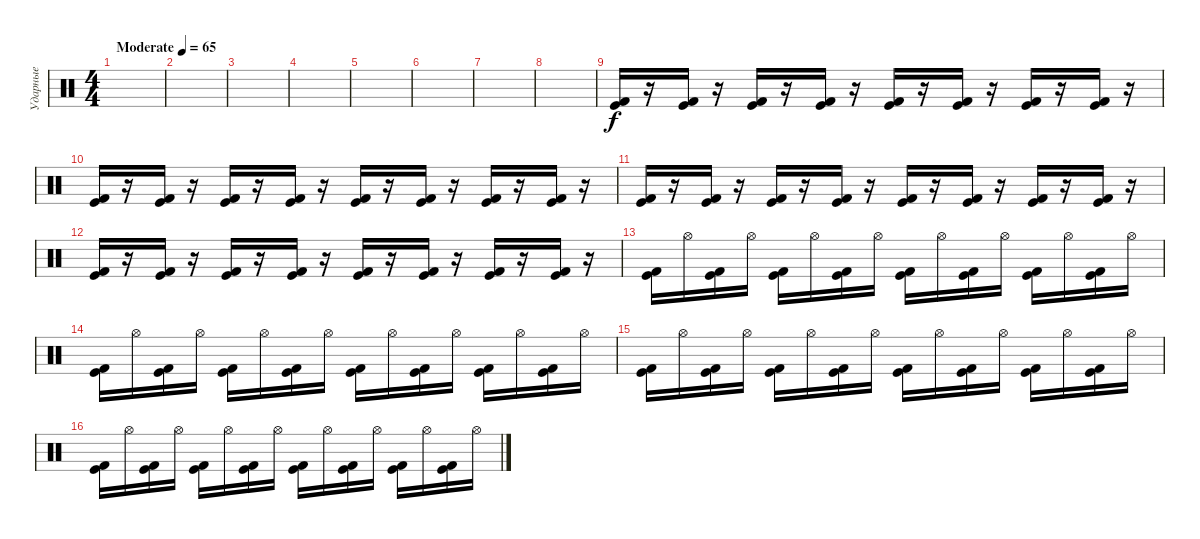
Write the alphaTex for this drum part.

\track ("Ударные" "Ударные") {instrument percussion}
\staff {score}
\articulation defaults
\ts (4 4)
\tempo (65 "Moderate")
\clef neutral
\ks c
|
|
|
|
|
|
|
|
("Kick (hit) 2" "Kick (hit)").16 r.16 ("Kick (hit) 2" "Kick (hit)").16 r.16 ("Kick (hit) 2" "Kick (hit)").16 r.16 ("Kick (hit) 2" "Kick (hit)").16 r.16 ("Kick (hit) 2" "Kick (hit)").16 r.16 ("Kick (hit) 2" "Kick (hit)").16 r.16 ("Kick (hit) 2" "Kick (hit)").16 r.16 ("Kick (hit) 2" "Kick (hit)").16 r.16 |
("Kick (hit) 2" "Kick (hit)").16 r.16 ("Kick (hit) 2" "Kick (hit)").16 r.16 ("Kick (hit) 2" "Kick (hit)").16 r.16 ("Kick (hit) 2" "Kick (hit)").16 r.16 ("Kick (hit) 2" "Kick (hit)").16 r.16 ("Kick (hit) 2" "Kick (hit)").16 r.16 ("Kick (hit) 2" "Kick (hit)").16 r.16 ("Kick (hit) 2" "Kick (hit)").16 r.16 |
("Kick (hit) 2" "Kick (hit)").16 r.16 ("Kick (hit) 2" "Kick (hit)").16 r.16 ("Kick (hit) 2" "Kick (hit)").16 r.16 ("Kick (hit) 2" "Kick (hit)").16 r.16 ("Kick (hit) 2" "Kick (hit)").16 r.16 ("Kick (hit) 2" "Kick (hit)").16 r.16 ("Kick (hit) 2" "Kick (hit)").16 r.16 ("Kick (hit) 2" "Kick (hit)").16 r.16 |
("Kick (hit) 2" "Kick (hit)").16 r.16 ("Kick (hit) 2" "Kick (hit)").16 r.16 ("Kick (hit) 2" "Kick (hit)").16 r.16 ("Kick (hit) 2" "Kick (hit)").16 r.16 ("Kick (hit) 2" "Kick (hit)").16 r.16 ("Kick (hit) 2" "Kick (hit)").16 r.16 ("Kick (hit) 2" "Kick (hit)").16 r.16 ("Kick (hit) 2" "Kick (hit)").16 r.16 |
("Kick (hit) 2" "Kick (hit)").16 "Hi-Hat (open)".16 ("Kick (hit) 2" "Kick (hit)").16 "Hi-Hat (open)".16 ("Kick (hit) 2" "Kick (hit)").16 "Hi-Hat (open)".16 ("Kick (hit) 2" "Kick (hit)").16 "Hi-Hat (open)".16 ("Kick (hit) 2" "Kick (hit)").16 "Hi-Hat (open)".16 ("Kick (hit) 2" "Kick (hit)").16 "Hi-Hat (open)".16 ("Kick (hit) 2" "Kick (hit)").16 "Hi-Hat (open)".16 ("Kick (hit) 2" "Kick (hit)").16 "Hi-Hat (open)".16 |
("Kick (hit) 2" "Kick (hit)").16 "Hi-Hat (open)".16 ("Kick (hit) 2" "Kick (hit)").16 "Hi-Hat (open)".16 ("Kick (hit) 2" "Kick (hit)").16 "Hi-Hat (open)".16 ("Kick (hit) 2" "Kick (hit)").16 "Hi-Hat (open)".16 ("Kick (hit) 2" "Kick (hit)").16 "Hi-Hat (open)".16 ("Kick (hit) 2" "Kick (hit)").16 "Hi-Hat (open)".16 ("Kick (hit) 2" "Kick (hit)").16 "Hi-Hat (open)".16 ("Kick (hit) 2" "Kick (hit)").16 "Hi-Hat (open)".16 |
("Kick (hit) 2" "Kick (hit)").16 "Hi-Hat (open)".16 ("Kick (hit) 2" "Kick (hit)").16 "Hi-Hat (open)".16 ("Kick (hit) 2" "Kick (hit)").16 "Hi-Hat (open)".16 ("Kick (hit) 2" "Kick (hit)").16 "Hi-Hat (open)".16 ("Kick (hit) 2" "Kick (hit)").16 "Hi-Hat (open)".16 ("Kick (hit) 2" "Kick (hit)").16 "Hi-Hat (open)".16 ("Kick (hit) 2" "Kick (hit)").16 "Hi-Hat (open)".16 ("Kick (hit) 2" "Kick (hit)").16 "Hi-Hat (open)".16 |
("Kick (hit) 2" "Kick (hit)").16 "Hi-Hat (open)".16 ("Kick (hit) 2" "Kick (hit)").16 "Hi-Hat (open)".16 ("Kick (hit) 2" "Kick (hit)").16 "Hi-Hat (open)".16 ("Kick (hit) 2" "Kick (hit)").16 "Hi-Hat (open)".16 ("Kick (hit) 2" "Kick (hit)").16 "Hi-Hat (open)".16 ("Kick (hit) 2" "Kick (hit)").16 "Hi-Hat (open)".16 ("Kick (hit) 2" "Kick (hit)").16 "Hi-Hat (open)".16 ("Kick (hit) 2" "Kick (hit)").16 "Hi-Hat (open)".16
